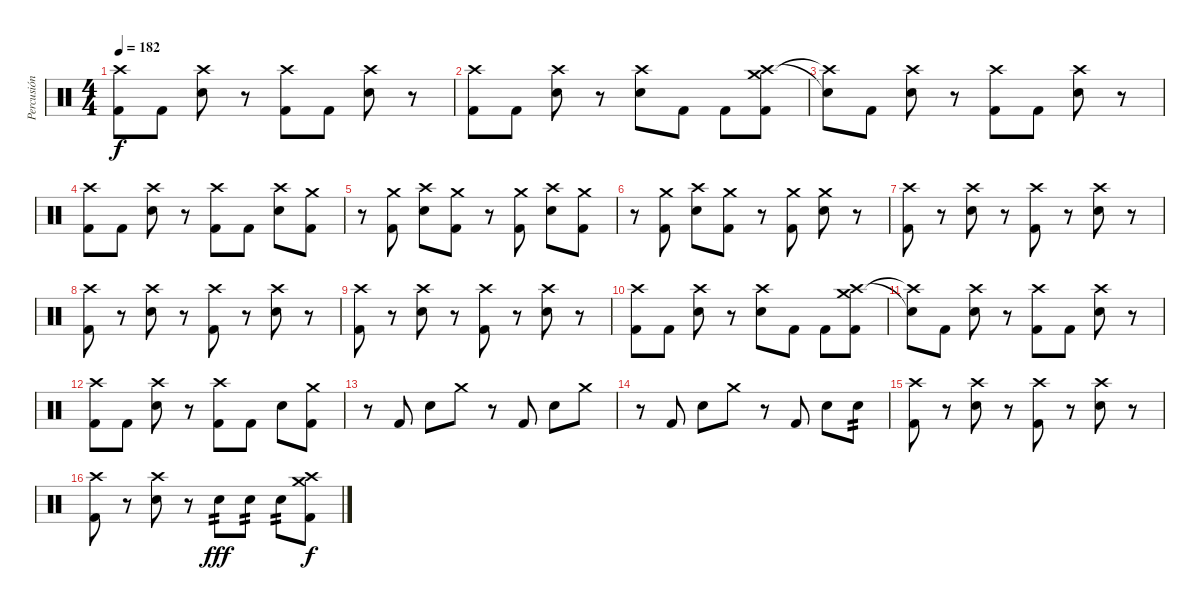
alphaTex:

\track ("Percusión Kuliá" "Percusión ") {instrument percussion}
\staff {score}
\articulation defaults
\ts (4 4)
\tempo 182
\clef neutral
\ks c
("Crash high (hit)" "Kick (hit) 2").8{dy f} "Kick (hit) 2".8 ("Crash high (hit)" "Electric Snare (hit)").8 r.8 ("Crash high (hit)" "Kick (hit) 2").8 "Kick (hit) 2".8 ("Crash high (hit)" "Electric Snare (hit)").8 r.8 |
("Crash high (hit)" "Kick (hit) 2").8 "Kick (hit) 2".8 ("Crash high (hit)" "Electric Snare (hit)").8 r.8 ("Crash high (hit)" "Electric Snare (hit)").8 "Kick (hit) 2".8 "Kick (hit) 2".8 ("Crash high (hit)" "Crash medium (hit)" "Kick (hit) 2").8 |
("Snare (hit)"{t} "Crash high (hit)"{t}).8 "Kick (hit) 2".8 ("Crash high (hit)" "Electric Snare (hit)").8 r.8 ("Crash high (hit)" "Kick (hit) 2").8 "Kick (hit) 2".8 ("Crash high (hit)" "Electric Snare (hit)").8 r.8 |
("Crash high (hit)" "Kick (hit) 2").8 "Kick (hit) 2".8 ("Crash high (hit)" "Electric Snare (hit)").8 r.8 ("Crash high (hit)" "Kick (hit) 2").8 "Kick (hit) 2".8 ("Crash high (hit)" "Electric Snare (hit)").8 ("Crash medium (hit)" "Kick (hit) 2").8 |
r.8 ("Crash medium (hit)" "Kick (hit) 2").8 ("Crash high (hit)" "Electric Snare (hit)").8 ("Crash medium (hit)" "Kick (hit) 2").8 r.8 ("Crash medium (hit)" "Kick (hit) 2").8 ("Crash high (hit)" "Electric Snare (hit)").8 ("Crash medium (hit)" "Kick (hit) 2").8 |
r.8 ("Crash medium (hit)" "Kick (hit) 2").8 ("Crash high (hit)" "Electric Snare (hit)").8 ("Crash medium (hit)" "Kick (hit) 2").8 r.8 ("Crash medium (hit)" "Kick (hit) 2").8 ("Crash medium (hit)" "Electric Snare (hit)").8 r.8 |
("Crash high (hit)" "Kick (hit) 2").8 r.8 ("Crash high (hit)" "Electric Snare (hit)").8 r.8 ("Crash high (hit)" "Kick (hit) 2").8 r.8 ("Crash high (hit)" "Electric Snare (hit)").8 r.8 |
("Crash high (hit)" "Kick (hit) 2").8 r.8 ("Crash high (hit)" "Electric Snare (hit)").8 r.8 ("Crash high (hit)" "Kick (hit) 2").8 r.8 ("Crash high (hit)" "Electric Snare (hit)").8 r.8 |
("Crash high (hit)" "Kick (hit) 2").8 r.8 ("Crash high (hit)" "Electric Snare (hit)").8 r.8 ("Crash high (hit)" "Kick (hit) 2").8 r.8 ("Crash high (hit)" "Electric Snare (hit)").8 r.8 |
("Crash high (hit)" "Kick (hit) 2").8 "Kick (hit) 2".8 ("Crash high (hit)" "Electric Snare (hit)").8 r.8 ("Crash high (hit)" "Electric Snare (hit)").8 "Kick (hit) 2".8 "Kick (hit) 2".8 ("Crash high (hit)" "Crash medium (hit)" "Kick (hit) 2").8 |
("Snare (hit)"{t} "Crash high (hit)"{t}).8 "Kick (hit) 2".8 ("Crash high (hit)" "Electric Snare (hit)").8 r.8 ("Crash high (hit)" "Kick (hit) 2").8 "Kick (hit) 2".8 ("Crash high (hit)" "Electric Snare (hit)").8 r.8 |
("Crash high (hit)" "Kick (hit) 2").8 "Kick (hit) 2".8 ("Crash high (hit)" "Electric Snare (hit)").8 r.8 ("Crash high (hit)" "Kick (hit) 2").8 "Kick (hit) 2".8 "Electric Snare (hit)".8 ("Crash medium (hit)" "Kick (hit) 2").8 |
r.8 "Kick (hit) 2".8 "Electric Snare (hit)".8 "Crash medium (hit)".8 r.8 "Kick (hit) 2".8 "Electric Snare (hit)".8 "Crash medium (hit)".8 |
r.8 "Kick (hit) 2".8 "Electric Snare (hit)".8 "Crash medium (hit)".8 r.8 "Kick (hit) 2".8 "Electric Snare (hit)".8 "Electric Snare (hit)".8{tp 2} |
("Crash high (hit)" "Kick (hit) 2").8 r.8 ("Crash high (hit)" "Electric Snare (hit)").8 r.8 ("Crash high (hit)" "Kick (hit) 2").8 r.8 ("Crash high (hit)" "Electric Snare (hit)").8 r.8 |
("Crash high (hit)" "Kick (hit) 2").8 r.8 ("Crash high (hit)" "Electric Snare (hit)").8 r.8 "Electric Snare (hit)".8{tp 2 dy fff} "Electric Snare (hit)".8{tp 2} "Electric Snare (hit)".8{tp 2} ("Crash high (hit)" "Crash medium (hit)" "Kick (hit) 2").8{dy f}
